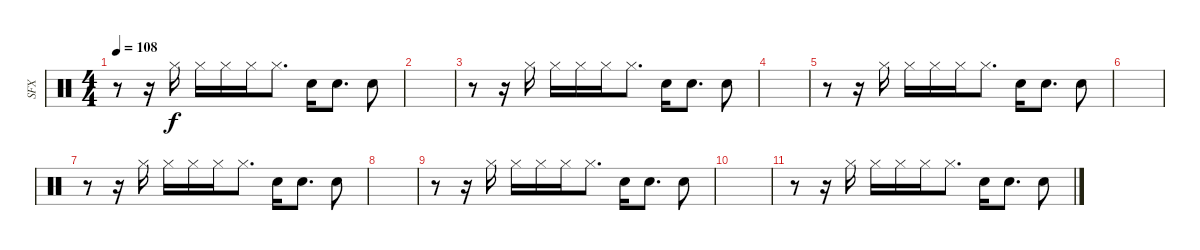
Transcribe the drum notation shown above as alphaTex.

\track ("SFX" "SFX") {instrument percussion}
\staff {score}
\articulation defaults
\ts (4 4)
\tempo 108
\clef neutral
\ks c
r.8{dy f} r.16 "Hi-Hat (closed)".16 "Hi-Hat (closed)".16 "Hi-Hat (closed)".16 "Hi-Hat (closed)".16 "Hi-Hat (closed)".8{d} "Hand Clap (hit)".16 "Hand Clap (hit)".8{d} "Hand Clap (hit)".8 |
|
r.8 r.16 "Hi-Hat (closed)".16 "Hi-Hat (closed)".16 "Hi-Hat (closed)".16 "Hi-Hat (closed)".16 "Hi-Hat (closed)".8{d} "Hand Clap (hit)".16 "Hand Clap (hit)".8{d} "Hand Clap (hit)".8 |
|
r.8 r.16 "Hi-Hat (closed)".16 "Hi-Hat (closed)".16 "Hi-Hat (closed)".16 "Hi-Hat (closed)".16 "Hi-Hat (closed)".8{d} "Hand Clap (hit)".16 "Hand Clap (hit)".8{d} "Hand Clap (hit)".8 |
|
r.8 r.16 "Hi-Hat (closed)".16 "Hi-Hat (closed)".16 "Hi-Hat (closed)".16 "Hi-Hat (closed)".16 "Hi-Hat (closed)".8{d} "Hand Clap (hit)".16 "Hand Clap (hit)".8{d} "Hand Clap (hit)".8 |
|
r.8 r.16 "Hi-Hat (closed)".16 "Hi-Hat (closed)".16 "Hi-Hat (closed)".16 "Hi-Hat (closed)".16 "Hi-Hat (closed)".8{d} "Hand Clap (hit)".16 "Hand Clap (hit)".8{d} "Hand Clap (hit)".8 |
|
r.8 r.16 "Hi-Hat (closed)".16 "Hi-Hat (closed)".16 "Hi-Hat (closed)".16 "Hi-Hat (closed)".16 "Hi-Hat (closed)".8{d} "Hand Clap (hit)".16 "Hand Clap (hit)".8{d} "Hand Clap (hit)".8
